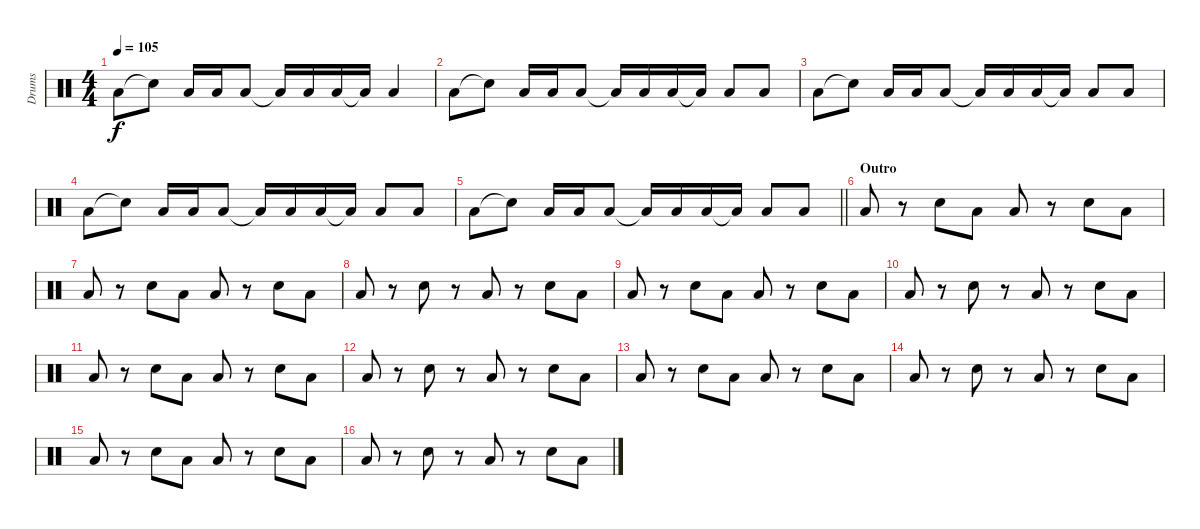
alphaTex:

\track ("Drums" "Drums") {instrument percussion}
\staff {score}
\articulation defaults
\ts (4 4)
\tempo 105
\clef neutral
\ks c "Low Floor Tom (hit)".8{dy f} "Snare (hit)"{t}.8 "Low Floor Tom (hit)".16 "Low Floor Tom (hit)".16 "Low Floor Tom (hit)".8 "Low Floor Tom (hit)"{t}.16 "Low Floor Tom (hit)".16 "Low Floor Tom (hit)".16 "Low Floor Tom (hit)"{t}.16 "Low Floor Tom (hit)".4
|
"Low Floor Tom (hit)".8 "Snare (hit)"{t}.8 "Low Floor Tom (hit)".16 "Low Floor Tom (hit)".16 "Low Floor Tom (hit)".8 "Low Floor Tom (hit)"{t}.16 "Low Floor Tom (hit)".16 "Low Floor Tom (hit)".16 "Low Floor Tom (hit)"{t}.16 "Low Floor Tom (hit)".8 "Low Floor Tom (hit)".8 |
"Low Floor Tom (hit)".8 "Snare (hit)"{t}.8 "Low Floor Tom (hit)".16 "Low Floor Tom (hit)".16 "Low Floor Tom (hit)".8 "Low Floor Tom (hit)"{t}.16 "Low Floor Tom (hit)".16 "Low Floor Tom (hit)".16 "Low Floor Tom (hit)"{t}.16 "Low Floor Tom (hit)".8 "Low Floor Tom (hit)".8 |
"Low Floor Tom (hit)".8 "Snare (hit)"{t}.8 "Low Floor Tom (hit)".16 "Low Floor Tom (hit)".16 "Low Floor Tom (hit)".8 "Low Floor Tom (hit)"{t}.16 "Low Floor Tom (hit)".16 "Low Floor Tom (hit)".16 "Low Floor Tom (hit)"{t}.16 "Low Floor Tom (hit)".8 "Low Floor Tom (hit)".8 |
\barLineRight lightlight "Low Floor Tom (hit)".8 "Snare (hit)"{t}.8 "Low Floor Tom (hit)".16 "Low Floor Tom (hit)".16 "Low Floor Tom (hit)".8 "Low Floor Tom (hit)"{t}.16 "Low Floor Tom (hit)".16 "Low Floor Tom (hit)".16 "Low Floor Tom (hit)"{t}.16 "Low Floor Tom (hit)".8 "Low Floor Tom (hit)".8
|
\section ("" "Outro")
"Low Floor Tom (hit)".8 r.8 "Hand Clap (hit)".8 "Low Floor Tom (hit)".8 "Low Floor Tom (hit)".8 r.8 "Hand Clap (hit)".8 "Low Floor Tom (hit)".8 |
"Low Floor Tom (hit)".8 r.8 "Hand Clap (hit)".8 "Low Floor Tom (hit)".8 "Low Floor Tom (hit)".8 r.8 "Hand Clap (hit)".8 "Low Floor Tom (hit)".8 |
"Low Floor Tom (hit)".8 r.8 "Hand Clap (hit)".8 r.8 "Low Floor Tom (hit)".8 r.8 "Hand Clap (hit)".8 "Low Floor Tom (hit)".8 |
"Low Floor Tom (hit)".8 r.8 "Hand Clap (hit)".8 "Low Floor Tom (hit)".8 "Low Floor Tom (hit)".8 r.8 "Hand Clap (hit)".8 "Low Floor Tom (hit)".8 |
"Low Floor Tom (hit)".8 r.8 "Hand Clap (hit)".8 r.8 "Low Floor Tom (hit)".8 r.8 "Hand Clap (hit)".8 "Low Floor Tom (hit)".8 |
"Low Floor Tom (hit)".8 r.8 "Hand Clap (hit)".8 "Low Floor Tom (hit)".8 "Low Floor Tom (hit)".8 r.8 "Hand Clap (hit)".8 "Low Floor Tom (hit)".8 |
"Low Floor Tom (hit)".8 r.8 "Hand Clap (hit)".8 r.8 "Low Floor Tom (hit)".8 r.8 "Hand Clap (hit)".8 "Low Floor Tom (hit)".8 |
"Low Floor Tom (hit)".8 r.8 "Hand Clap (hit)".8 "Low Floor Tom (hit)".8 "Low Floor Tom (hit)".8 r.8 "Hand Clap (hit)".8 "Low Floor Tom (hit)".8 |
"Low Floor Tom (hit)".8 r.8 "Hand Clap (hit)".8 r.8 "Low Floor Tom (hit)".8 r.8 "Hand Clap (hit)".8 "Low Floor Tom (hit)".8 |
"Low Floor Tom (hit)".8 r.8 "Hand Clap (hit)".8 "Low Floor Tom (hit)".8 "Low Floor Tom (hit)".8 r.8 "Hand Clap (hit)".8 "Low Floor Tom (hit)".8 |
"Low Floor Tom (hit)".8 r.8 "Hand Clap (hit)".8 r.8 "Low Floor Tom (hit)".8 r.8 "Hand Clap (hit)".8 "Low Floor Tom (hit)".8
